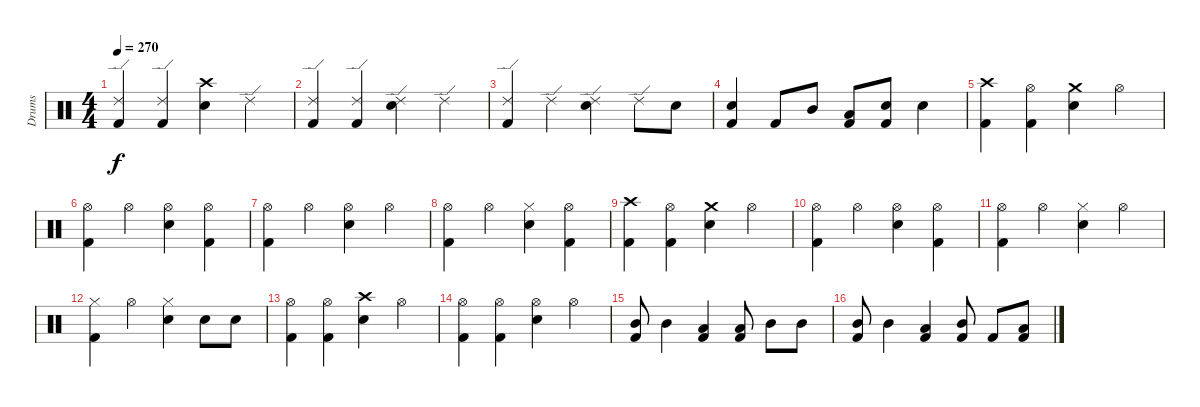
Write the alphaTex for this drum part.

\track ("Drums" "Drums") {instrument percussion}
\staff {score}
\articulation defaults
\ts (4 4)
\tempo 270
\clef neutral
\ks c
("Ride (edge) 2" "Kick (hit) 2").4{dy f} ("Ride (edge) 2" "Kick (hit) 2").4 ("Crash high (hit)" "Snare (hit) 2").4 "Ride (edge) 2".4 |
("Ride (edge) 2" "Kick (hit) 2").4 ("Ride (edge) 2" "Kick (hit) 2").4 ("Ride (edge) 2" "Snare (hit) 2").4 "Ride (edge) 2".4 |
("Ride (edge) 2" "Kick (hit) 2").4 "Ride (edge) 2".4 ("Ride (edge) 2" "Snare (hit) 2").4 "Ride (edge) 2".8 "Snare (hit) 2".8 |
("Snare (hit) 2" "Kick (hit) 2").4 "Kick (hit) 2".8 "Mid Tom (hit)".8 ("Kick (hit) 2" "Low Tom (hit)").8 ("Snare (hit) 2" "Kick (hit) 2").8 "Snare (hit) 2".4 |
("Crash high (hit)" "Kick (hit) 2").4 ("Hi-Hat (open)" "Kick (hit) 2").4 ("Crash medium (hit)" "Snare (hit) 2").4 "Hi-Hat (open)".4 |
("Hi-Hat (open)" "Kick (hit) 2").4 "Hi-Hat (open)".4 ("Hi-Hat (open)" "Snare (hit) 2").4 ("Hi-Hat (open)" "Kick (hit) 2").4 |
("Hi-Hat (open)" "Kick (hit) 2").4 "Hi-Hat (open)".4 ("Hi-Hat (open)" "Snare (hit) 2").4 "Hi-Hat (open)".4 |
("Hi-Hat (open)" "Kick (hit) 2").4 "Hi-Hat (open)".4 ("Hi-Hat (closed)" "Snare (hit) 2").4 ("Hi-Hat (open)" "Kick (hit) 2").4 |
("Crash high (hit)" "Kick (hit) 2").4 ("Hi-Hat (open)" "Kick (hit) 2").4 ("Crash medium (hit)" "Snare (hit) 2").4 "Hi-Hat (open)".4 |
("Hi-Hat (open)" "Kick (hit) 2").4 "Hi-Hat (open)".4 ("Hi-Hat (open)" "Snare (hit) 2").4 ("Hi-Hat (open)" "Kick (hit) 2").4 |
("Hi-Hat (open)" "Kick (hit) 2").4 "Hi-Hat (open)".4 ("Hi-Hat (closed)" "Snare (hit) 2").4 "Hi-Hat (open)".4 |
("Hi-Hat (closed)" "Kick (hit) 2").4 "Hi-Hat (open)".4 ("Hi-Hat (closed)" "Snare (hit) 2").4 "Snare (hit) 2".8 "Snare (hit) 2".8 |
("Hi-Hat (open)" "Kick (hit) 2").4 ("Hi-Hat (open)" "Kick (hit) 2").4 ("Crash high (hit)" "Snare (hit) 2").4 "Hi-Hat (open)".4 |
("Hi-Hat (open)" "Kick (hit) 2").4 ("Hi-Hat (open)" "Kick (hit) 2").4 ("Hi-Hat (open)" "Snare (hit) 2").4 "Hi-Hat (open)".4 |
("Kick (hit) 2" "Mid Tom (hit)").8 "Mid Tom (hit)".4 ("Kick (hit) 2" "Low Tom (hit)").4 ("Kick (hit) 2" "Low Tom (hit)").8 "Mid Tom (hit)".8 "Mid Tom (hit)".8 |
("Kick (hit) 2" "Mid Tom (hit)").8 "Mid Tom (hit)".4 ("Kick (hit) 2" "Low Tom (hit)").4 ("Kick (hit) 2" "Mid Tom (hit)").8 "Kick (hit) 2".8 ("Kick (hit) 2" "Low Tom (hit)").8
